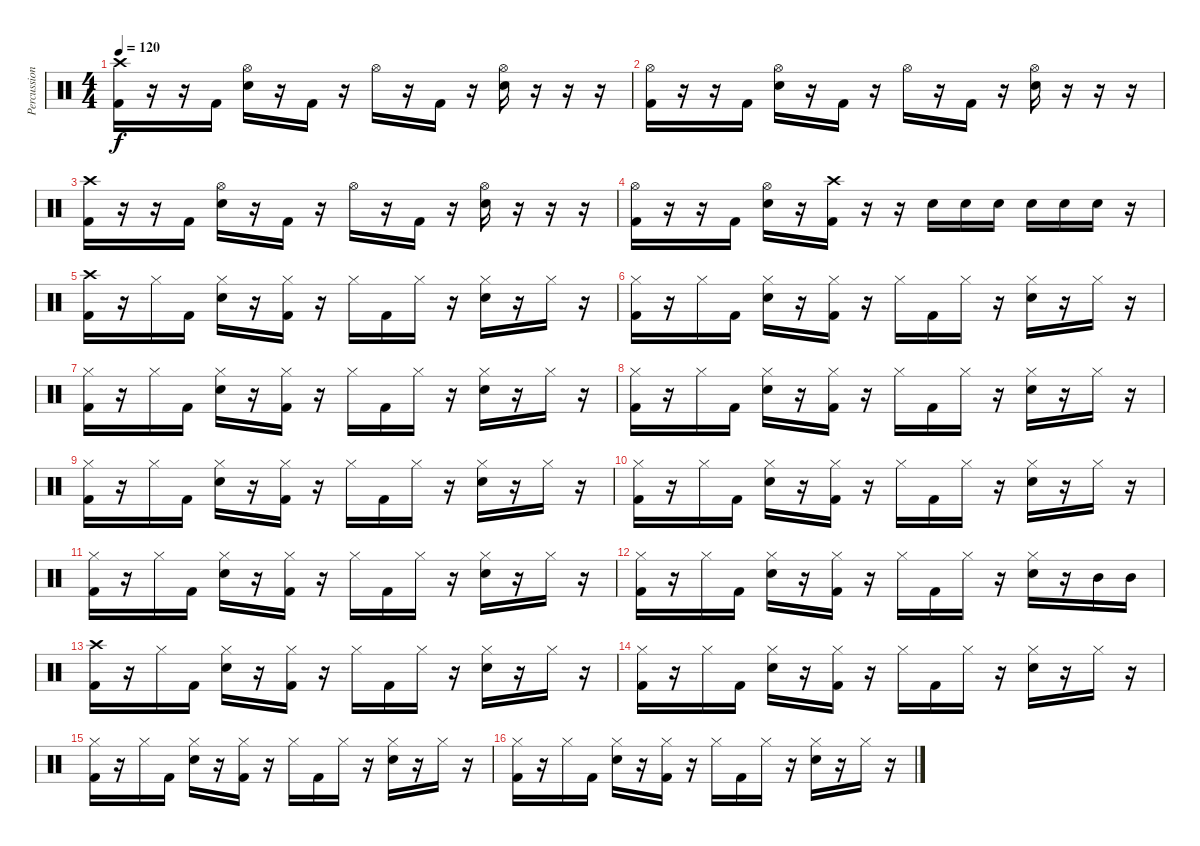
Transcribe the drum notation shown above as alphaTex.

\track ("Percussion" "Percussion") {instrument percussion}
\staff {score}
\articulation defaults
\ts (4 4)
\tempo 120
\clef neutral
\ks c
("Crash high (hit)" "Kick (hit) 2").16{dy f} r.16 r.16 "Kick (hit) 2".16 ("Hi-Hat (open)" "Snare (hit) 2").16 r.16 "Kick (hit) 2".16 r.16 "Hi-Hat (open)".16 r.16 "Kick (hit) 2".16 r.16 ("Hi-Hat (open)" "Snare (hit) 2").16 r.16 r.16 r.16 |
("Hi-Hat (open)" "Kick (hit) 2").16 r.16 r.16 "Kick (hit) 2".16 ("Hi-Hat (open)" "Snare (hit) 2").16 r.16 "Kick (hit) 2".16 r.16 "Hi-Hat (open)".16 r.16 "Kick (hit) 2".16 r.16 ("Hi-Hat (open)" "Snare (hit) 2").16 r.16 r.16 r.16 |
("Crash high (hit)" "Kick (hit) 2").16 r.16 r.16 "Kick (hit) 2".16 ("Hi-Hat (open)" "Snare (hit) 2").16 r.16 "Kick (hit) 2".16 r.16 "Hi-Hat (open)".16 r.16 "Kick (hit) 2".16 r.16 ("Hi-Hat (open)" "Snare (hit) 2").16 r.16 r.16 r.16 |
("Hi-Hat (open)" "Kick (hit) 2").16 r.16 r.16 "Kick (hit) 2".16 ("Hi-Hat (open)" "Snare (hit) 2").16 r.16 ("Crash high (hit)" "Kick (hit) 2").16 r.16 r.16 "Snare (hit) 2".16 "Snare (hit) 2".16 "Snare (hit) 2".16 "Snare (hit) 2".16 "Snare (hit) 2".16 "Snare (hit) 2".16 r.16 |
("Crash high (hit)" "Kick (hit) 2").16 r.16 "Hi-Hat (closed)".16 "Kick (hit) 2".16 ("Hi-Hat (closed)" "Snare (hit) 2").16 r.16 ("Hi-Hat (closed)" "Kick (hit) 2").16 r.16 "Hi-Hat (closed)".16 "Kick (hit) 2".16 "Hi-Hat (closed)".16 r.16 ("Hi-Hat (closed)" "Snare (hit) 2").16 r.16 "Hi-Hat (closed)".16 r.16 |
("Hi-Hat (closed)" "Kick (hit) 2").16 r.16 "Hi-Hat (closed)".16 "Kick (hit) 2".16 ("Hi-Hat (closed)" "Snare (hit) 2").16 r.16 ("Hi-Hat (closed)" "Kick (hit) 2").16 r.16 "Hi-Hat (closed)".16 "Kick (hit) 2".16 "Hi-Hat (closed)".16 r.16 ("Hi-Hat (closed)" "Snare (hit) 2").16 r.16 "Hi-Hat (closed)".16 r.16 |
("Hi-Hat (closed)" "Kick (hit) 2").16 r.16 "Hi-Hat (closed)".16 "Kick (hit) 2".16 ("Hi-Hat (closed)" "Snare (hit) 2").16 r.16 ("Hi-Hat (closed)" "Kick (hit) 2").16 r.16 "Hi-Hat (closed)".16 "Kick (hit) 2".16 "Hi-Hat (closed)".16 r.16 ("Hi-Hat (closed)" "Snare (hit) 2").16 r.16 "Hi-Hat (closed)".16 r.16 |
("Hi-Hat (closed)" "Kick (hit) 2").16 r.16 "Hi-Hat (closed)".16 "Kick (hit) 2".16 ("Hi-Hat (closed)" "Snare (hit) 2").16 r.16 ("Hi-Hat (closed)" "Kick (hit) 2").16 r.16 "Hi-Hat (closed)".16 "Kick (hit) 2".16 "Hi-Hat (closed)".16 r.16 ("Hi-Hat (closed)" "Snare (hit) 2").16 r.16 "Hi-Hat (closed)".16 r.16 |
("Hi-Hat (closed)" "Kick (hit) 2").16 r.16 "Hi-Hat (closed)".16 "Kick (hit) 2".16 ("Hi-Hat (closed)" "Snare (hit) 2").16 r.16 ("Hi-Hat (closed)" "Kick (hit) 2").16 r.16 "Hi-Hat (closed)".16 "Kick (hit) 2".16 "Hi-Hat (closed)".16 r.16 ("Hi-Hat (closed)" "Snare (hit) 2").16 r.16 "Hi-Hat (closed)".16 r.16 |
("Hi-Hat (closed)" "Kick (hit) 2").16 r.16 "Hi-Hat (closed)".16 "Kick (hit) 2".16 ("Hi-Hat (closed)" "Snare (hit) 2").16 r.16 ("Hi-Hat (closed)" "Kick (hit) 2").16 r.16 "Hi-Hat (closed)".16 "Kick (hit) 2".16 "Hi-Hat (closed)".16 r.16 ("Hi-Hat (closed)" "Snare (hit) 2").16 r.16 "Hi-Hat (closed)".16 r.16 |
("Hi-Hat (closed)" "Kick (hit) 2").16 r.16 "Hi-Hat (closed)".16 "Kick (hit) 2".16 ("Hi-Hat (closed)" "Snare (hit) 2").16 r.16 ("Hi-Hat (closed)" "Kick (hit) 2").16 r.16 "Hi-Hat (closed)".16 "Kick (hit) 2".16 "Hi-Hat (closed)".16 r.16 ("Hi-Hat (closed)" "Snare (hit) 2").16 r.16 "Hi-Hat (closed)".16 r.16 |
("Hi-Hat (closed)" "Kick (hit) 2").16 r.16 "Hi-Hat (closed)".16 "Kick (hit) 2".16 ("Hi-Hat (closed)" "Snare (hit) 2").16 r.16 ("Hi-Hat (closed)" "Kick (hit) 2").16 r.16 "Hi-Hat (closed)".16 "Kick (hit) 2".16 "Hi-Hat (closed)".16 r.16 ("Hi-Hat (closed)" "Snare (hit) 2").16 r.16 "Mid Tom (hit)".16 "Mid Tom (hit)".16 |
("Crash high (hit)" "Kick (hit) 2").16 r.16 "Hi-Hat (closed)".16 "Kick (hit) 2".16 ("Hi-Hat (closed)" "Snare (hit) 2").16 r.16 ("Hi-Hat (closed)" "Kick (hit) 2").16 r.16 "Hi-Hat (closed)".16 "Kick (hit) 2".16 "Hi-Hat (closed)".16 r.16 ("Hi-Hat (closed)" "Snare (hit) 2").16 r.16 "Hi-Hat (closed)".16 r.16 |
("Hi-Hat (closed)" "Kick (hit) 2").16 r.16 "Hi-Hat (closed)".16 "Kick (hit) 2".16 ("Hi-Hat (closed)" "Snare (hit) 2").16 r.16 ("Hi-Hat (closed)" "Kick (hit) 2").16 r.16 "Hi-Hat (closed)".16 "Kick (hit) 2".16 "Hi-Hat (closed)".16 r.16 ("Hi-Hat (closed)" "Snare (hit) 2").16 r.16 "Hi-Hat (closed)".16 r.16 |
("Hi-Hat (closed)" "Kick (hit) 2").16 r.16 "Hi-Hat (closed)".16 "Kick (hit) 2".16 ("Hi-Hat (closed)" "Snare (hit) 2").16 r.16 ("Hi-Hat (closed)" "Kick (hit) 2").16 r.16 "Hi-Hat (closed)".16 "Kick (hit) 2".16 "Hi-Hat (closed)".16 r.16 ("Hi-Hat (closed)" "Snare (hit) 2").16 r.16 "Hi-Hat (closed)".16 r.16 |
("Hi-Hat (closed)" "Kick (hit) 2").16 r.16 "Hi-Hat (closed)".16 "Kick (hit) 2".16 ("Hi-Hat (closed)" "Snare (hit) 2").16 r.16 ("Hi-Hat (closed)" "Kick (hit) 2").16 r.16 "Hi-Hat (closed)".16 "Kick (hit) 2".16 "Hi-Hat (closed)".16 r.16 ("Hi-Hat (closed)" "Snare (hit) 2").16 r.16 "Hi-Hat (closed)".16 r.16
